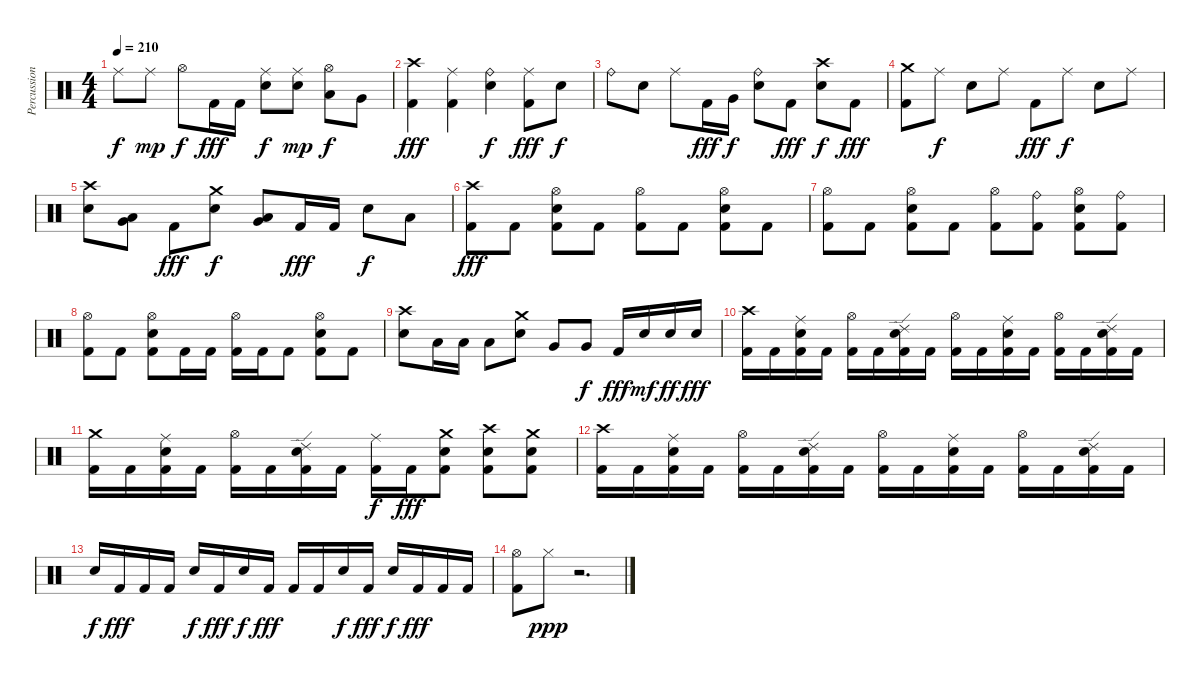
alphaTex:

\track ("Percussion" "Percussion") {instrument percussion}
\staff {score}
\articulation defaults
\ts (4 4)
\tempo 210
\clef neutral
\ks c "Ride (middle)".8{dy f} "Ride (middle)".8{dy mp} "Hi-Hat (open)".8{dy f} "Kick (hit) 2".16{dy fff} "Kick (hit) 2".16
("Ride (middle)" "Snare (hit) 2").8{dy f} ("Ride (middle)" "Snare (hit) 2").8{dy mp} ("Hi-Hat (open)" "Low Tom (hit)").8{dy f} "Very Low Tom (hit)".8 |
("Crash high (hit)" "Kick (hit) 2").4{dy fff} ("Ride (middle)" "Kick (hit) 2").4 ("Ride (bell)" "Snare (hit) 2").4{dy f} ("Ride (middle)" "Kick (hit) 2").8{dy fff} "Snare (hit) 2".8{dy f} |
"Ride (bell)".8 "Snare (hit) 2".8 "Ride (middle)".8 "Kick (hit) 2".16{dy fff} "Very Low Tom (hit)".16{dy f} ("Ride (bell)" "Snare (hit) 2").8 "Kick (hit) 2".8{dy fff} ("Crash high (hit)" "Snare (hit) 2").8{dy f} "Kick (hit) 2".8{dy fff} |
("Crash medium (hit)" "Kick (hit) 2").8 "Ride (middle)".8{dy f} "Snare (hit) 2".8 "Ride (middle)".8 "Kick (hit) 2".8{dy fff} "Ride (middle)".8{dy f} "Snare (hit) 2".8 "Ride (middle)".8 |
("Crash high (hit)" "Snare (hit) 2").8 ("Very Low Tom (hit)" "Low Tom (hit)").8 "Kick (hit) 2".8{dy fff} ("Crash medium (hit)" "Snare (hit) 2").8{dy f} ("Very Low Tom (hit)" "Low Tom (hit)").8 "Kick (hit) 2".16{dy fff} "Kick (hit) 2".16 "Snare (hit) 2".8{dy f} "Low Tom (hit)".8 |
("Crash high (hit)" "Kick (hit) 2").8{dy fff} "Kick (hit) 2".8 ("Hi-Hat (open)" "Snare (hit) 2" "Kick (hit) 2").8 "Kick (hit) 2".8 ("Hi-Hat (open)" "Kick (hit) 2").8 "Kick (hit) 2".8 ("Hi-Hat (open)" "Snare (hit) 2" "Kick (hit) 2").8 "Kick (hit) 2".8 |
("Hi-Hat (open)" "Kick (hit) 2").8 "Kick (hit) 2".8 ("Hi-Hat (open)" "Snare (hit) 2" "Kick (hit) 2").8 "Kick (hit) 2".8 ("Hi-Hat (open)" "Kick (hit) 2").8 ("Ride (bell)" "Kick (hit) 2").8 ("Hi-Hat (open)" "Snare (hit) 2" "Kick (hit) 2").8 ("Ride (bell)" "Kick (hit) 2").8 |
("Hi-Hat (open)" "Kick (hit) 2").8 "Kick (hit) 2".8 ("Hi-Hat (open)" "Snare (hit) 2" "Kick (hit) 2").8 "Kick (hit) 2".16 "Kick (hit) 2".16 ("Hi-Hat (open)" "Kick (hit) 2").16 "Kick (hit) 2".16 "Kick (hit) 2".8 ("Hi-Hat (open)" "Snare (hit) 2" "Kick (hit) 2").8 "Kick (hit) 2".8 |
("Crash high (hit)" "Snare (hit) 2").8 "Low Tom (hit)".16 "Low Tom (hit)".16 "Low Tom (hit)".8 ("Crash medium (hit)" "Snare (hit) 2").8 "Very Low Tom (hit)".8 "Very Low Tom (hit)".8{dy f} "Kick (hit) 2".16{dy fff} "Snare (hit) 2".16{dy mf} "Snare (hit) 2".16{dy ff} "Snare (hit) 2".16{dy fff} |
("Crash high (hit)" "Kick (hit) 2").16 "Kick (hit) 2".16 ("Ride (middle)" "Snare (hit) 2" "Kick (hit) 2").16 "Kick (hit) 2".16 ("Hi-Hat (open)" "Kick (hit) 2").16 "Kick (hit) 2".16 ("Ride (edge) 2" "Snare (hit) 2" "Kick (hit) 2").16 "Kick (hit) 2".16 ("Hi-Hat (open)" "Kick (hit) 2").16 "Kick (hit) 2".16 ("Ride (middle)" "Snare (hit) 2" "Kick (hit) 2").16 "Kick (hit) 2".16 ("Hi-Hat (open)" "Kick (hit) 2").16 "Kick (hit) 2".16 ("Ride (edge) 2" "Snare (hit) 2" "Kick (hit) 2").16 "Kick (hit) 2".16 |
("Crash medium (hit)" "Kick (hit) 2").16 "Kick (hit) 2".16 ("Ride (middle)" "Snare (hit) 2" "Kick (hit) 2").16 "Kick (hit) 2".16 ("Hi-Hat (open)" "Kick (hit) 2").16 "Kick (hit) 2".16 ("Ride (edge) 2" "Snare (hit) 2" "Kick (hit) 2").16 "Kick (hit) 2".16 ("Ride (middle)" "Kick (hit) 2").16{dy f} "Kick (hit) 2".16{dy fff} ("Crash medium (hit)" "Snare (hit) 2" "Kick (hit) 2").8 ("Crash high (hit)" "Snare (hit) 2" "Kick (hit) 2").8 ("Crash medium (hit)" "Snare (hit) 2" "Kick (hit) 2").8 |
("Crash high (hit)" "Kick (hit) 2").16 "Kick (hit) 2".16 ("Ride (middle)" "Snare (hit) 2" "Kick (hit) 2").16 "Kick (hit) 2".16 ("Hi-Hat (open)" "Kick (hit) 2").16 "Kick (hit) 2".16 ("Ride (edge) 2" "Snare (hit) 2" "Kick (hit) 2").16 "Kick (hit) 2".16 ("Hi-Hat (open)" "Kick (hit) 2").16 "Kick (hit) 2".16 ("Ride (middle)" "Snare (hit) 2" "Kick (hit) 2").16 "Kick (hit) 2".16 ("Hi-Hat (open)" "Kick (hit) 2").16 "Kick (hit) 2".16 ("Ride (edge) 2" "Snare (hit) 2" "Kick (hit) 2").16 "Kick (hit) 2".16 |
"Snare (hit) 2".16{dy f} "Kick (hit) 2".16{dy fff} "Kick (hit) 2".16 "Kick (hit) 2".16 "Snare (hit) 2".16{dy f} "Kick (hit) 2".16{dy fff} "Snare (hit) 2".16{dy f} "Kick (hit) 2".16{dy fff} "Kick (hit) 2".16 "Kick (hit) 2".16 "Snare (hit) 2".16{dy f} "Kick (hit) 2".16{dy fff} "Snare (hit) 2".16{dy f} "Kick (hit) 2".16{dy fff} "Kick (hit) 2".16 "Kick (hit) 2".16 |
("Hi-Hat (open)" "Kick (hit) 2").8 "Hi-Hat (closed)".8{dy ppp} r.2{d}
